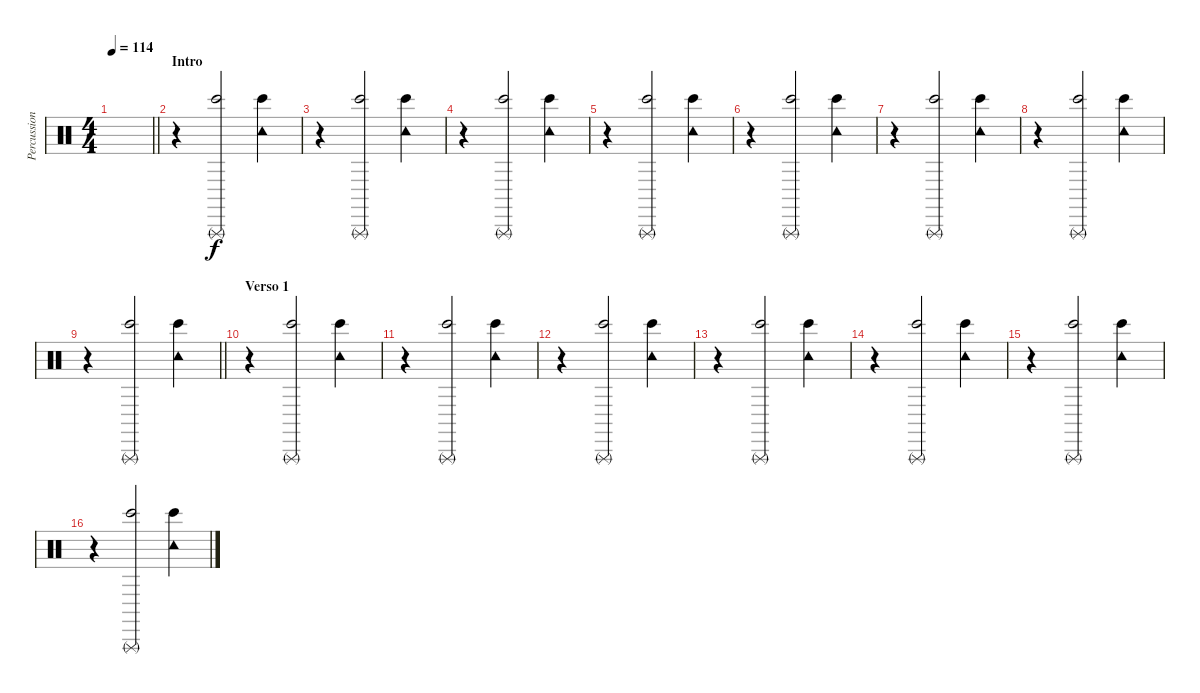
\track ("Percussion" "Percussion") {instrument percussion}
\staff {score}
\articulation defaults
\ts (4 4)
\tempo 114
\clef neutral
\barLineRight lightlight
\ks c
|
\section ("" "Intro")
r.4 ("Triangle (rnute)" "Bongo High (hit)").2 ("Tambourine (hit)" "Bongo High (hit)").4 |
r.4 ("Triangle (rnute)" "Bongo High (hit)").2 ("Tambourine (hit)" "Bongo High (hit)").4 |
r.4 ("Triangle (rnute)" "Bongo High (hit)").2 ("Tambourine (hit)" "Bongo High (hit)").4 |
r.4 ("Triangle (rnute)" "Bongo High (hit)").2 ("Tambourine (hit)" "Bongo High (hit)").4 |
r.4 ("Triangle (rnute)" "Bongo High (hit)").2 ("Tambourine (hit)" "Bongo High (hit)").4 |
r.4 ("Triangle (rnute)" "Bongo High (hit)").2 ("Tambourine (hit)" "Bongo High (hit)").4 |
r.4 ("Triangle (rnute)" "Bongo High (hit)").2 ("Tambourine (hit)" "Bongo High (hit)").4 |
\barLineRight lightlight
r.4 ("Triangle (rnute)" "Bongo High (hit)").2 ("Tambourine (hit)" "Bongo High (hit)").4 |
\section ("" "Verso 1")
r.4 ("Triangle (rnute)" "Bongo High (hit)").2 ("Tambourine (hit)" "Bongo High (hit)").4 |
r.4 ("Triangle (rnute)" "Bongo High (hit)").2 ("Tambourine (hit)" "Bongo High (hit)").4 |
r.4 ("Triangle (rnute)" "Bongo High (hit)").2 ("Tambourine (hit)" "Bongo High (hit)").4 |
r.4 ("Triangle (rnute)" "Bongo High (hit)").2 ("Tambourine (hit)" "Bongo High (hit)").4 |
r.4 ("Triangle (rnute)" "Bongo High (hit)").2 ("Tambourine (hit)" "Bongo High (hit)").4 |
r.4 ("Triangle (rnute)" "Bongo High (hit)").2 ("Tambourine (hit)" "Bongo High (hit)").4 |
r.4 ("Triangle (rnute)" "Bongo High (hit)").2 ("Tambourine (hit)" "Bongo High (hit)").4
